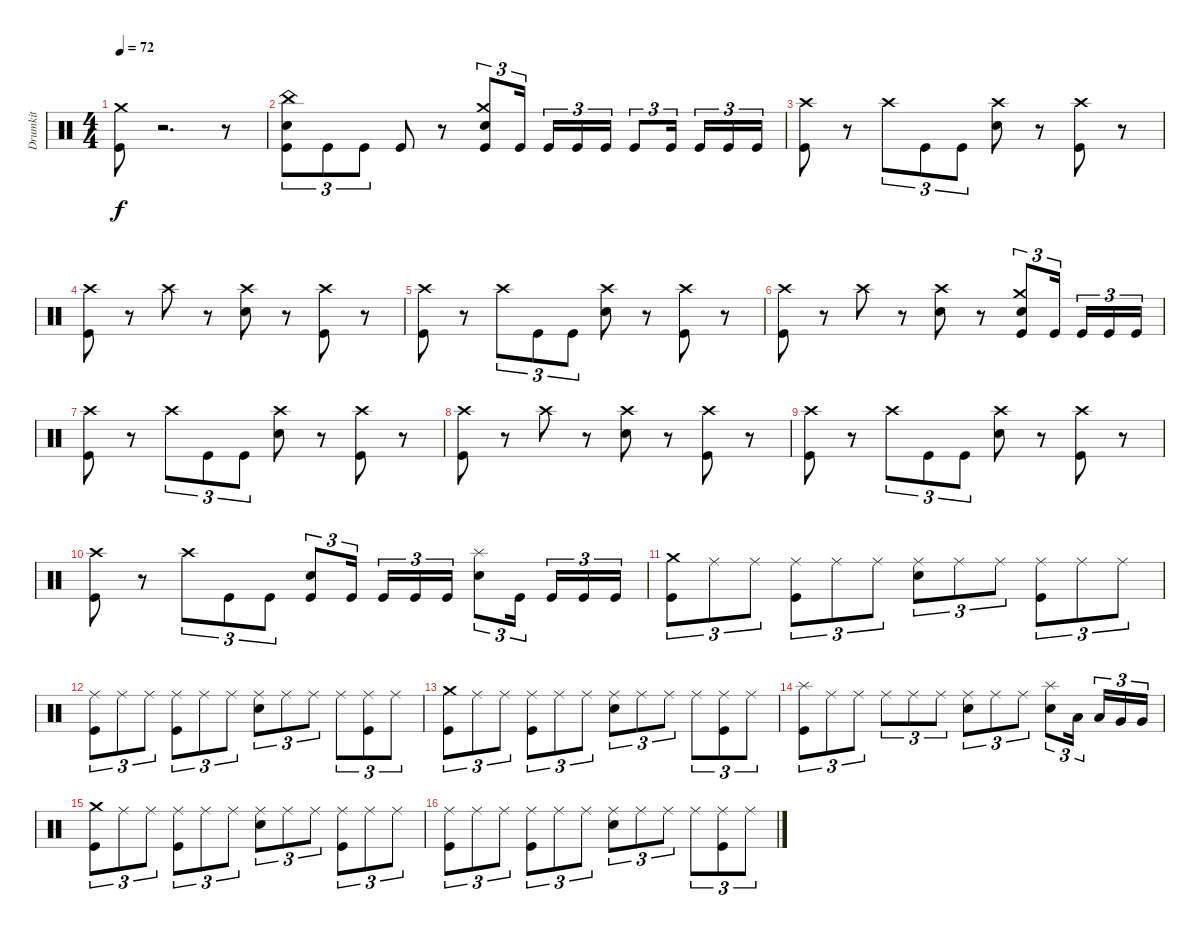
\track ("Drumkit" "Drumkit") {instrument percussion}
\staff {score}
\articulation defaults
\ts (4 4)
\tempo 72
\clef neutral
\ks c
("Kick (hit)" "Crash medium (hit)").8{dy f} r.2{d} r.8 |
("Kick (hit)" "Snare (hit) 2" "China (hit)").8{tu (3 2)} "Kick (hit)".8{tu (3 2)} "Kick (hit)".8{tu (3 2)} "Kick (hit)".8 r.8 ("Kick (hit)" "Snare (hit) 2" "Crash medium (hit)").8{tu (3 2)} "Kick (hit)".16{tu (3 2) beam splitsecondary} "Kick (hit)".16{tu (3 2)} "Kick (hit)".16{tu (3 2)} "Kick (hit)".16{tu (3 2)} "Kick (hit)".8{tu (3 2)} "Kick (hit)".16{tu (3 2) beam splitsecondary} "Kick (hit)".16{tu (3 2)} "Kick (hit)".16{tu (3 2)} "Kick (hit)".16{tu (3 2)} |
("Kick (hit)" "Crash high (hit)").8 r.8 "Crash high (hit)".8{tu (3 2)} "Kick (hit)".8{tu (3 2)} "Kick (hit)".8{tu (3 2)} ("Snare (hit) 2" "Crash high (hit)").8 r.8 ("Kick (hit)" "Crash high (hit)").8 r.8 |
("Kick (hit)" "Crash high (hit)").8 r.8 "Crash high (hit)".8 r.8 ("Snare (hit) 2" "Crash high (hit)").8 r.8 ("Kick (hit)" "Crash high (hit)").8 r.8 |
("Kick (hit)" "Crash high (hit)").8 r.8 "Crash high (hit)".8{tu (3 2)} "Kick (hit)".8{tu (3 2)} "Kick (hit)".8{tu (3 2)} ("Snare (hit) 2" "Crash high (hit)").8 r.8 ("Kick (hit)" "Crash high (hit)").8 r.8 |
("Kick (hit)" "Crash high (hit)").8 r.8 "Crash high (hit)".8 r.8 ("Snare (hit) 2" "Crash high (hit)").8 r.8 ("Kick (hit)" "Snare (hit) 2" "Crash medium (hit)").8{tu (3 2)} "Kick (hit)".16{tu (3 2) beam splitsecondary} "Kick (hit)".16{tu (3 2)} "Kick (hit)".16{tu (3 2)} "Kick (hit)".16{tu (3 2)} |
("Kick (hit)" "Crash high (hit)").8 r.8 "Crash high (hit)".8{tu (3 2)} "Kick (hit)".8{tu (3 2)} "Kick (hit)".8{tu (3 2)} ("Snare (hit) 2" "Crash high (hit)").8 r.8 ("Kick (hit)" "Crash high (hit)").8 r.8 |
("Kick (hit)" "Crash high (hit)").8 r.8 "Crash high (hit)".8 r.8 ("Snare (hit) 2" "Crash high (hit)").8 r.8 ("Kick (hit)" "Crash high (hit)").8 r.8 |
("Kick (hit)" "Crash high (hit)").8 r.8 "Crash high (hit)".8{tu (3 2)} "Kick (hit)".8{tu (3 2)} "Kick (hit)".8{tu (3 2)} ("Snare (hit) 2" "Crash high (hit)").8 r.8 ("Kick (hit)" "Crash high (hit)").8 r.8 |
("Kick (hit)" "Crash high (hit)").8 r.8 "Crash high (hit)".8{tu (3 2)} "Kick (hit)".8{tu (3 2)} "Kick (hit)".8{tu (3 2)} ("Kick (hit)" "Snare (hit) 2").8{tu (3 2)} "Kick (hit)".16{tu (3 2) beam splitsecondary} "Kick (hit)".16{tu (3 2)} "Kick (hit)".16{tu (3 2)} "Kick (hit)".16{tu (3 2)} ("Snare (hit) 2" "Splash (hit)").8{tu (3 2)} "Kick (hit)".16{tu (3 2) beam splitsecondary} "Kick (hit)".16{tu (3 2)} "Kick (hit)".16{tu (3 2)} "Kick (hit)".16{tu (3 2)} |
("Kick (hit)" "Crash medium (hit)").8{tu (3 2)} "Ride (middle)".8{tu (3 2)} "Ride (middle)".8{tu (3 2)} ("Kick (hit)" "Ride (middle)").8{tu (3 2)} "Ride (middle)".8{tu (3 2)} "Ride (middle)".8{tu (3 2)} ("Snare (hit) 2" "Ride (middle)").8{tu (3 2)} "Ride (middle)".8{tu (3 2)} "Ride (middle)".8{tu (3 2)} ("Kick (hit)" "Ride (middle)").8{tu (3 2)} "Ride (middle)".8{tu (3 2)} "Ride (middle)".8{tu (3 2)} |
("Kick (hit)" "Ride (middle)").8{tu (3 2)} "Ride (middle)".8{tu (3 2)} "Ride (middle)".8{tu (3 2)} ("Kick (hit)" "Ride (middle)").8{tu (3 2)} "Ride (middle)".8{tu (3 2)} "Ride (middle)".8{tu (3 2)} ("Snare (hit) 2" "Ride (middle)").8{tu (3 2)} "Ride (middle)".8{tu (3 2)} "Ride (middle)".8{tu (3 2)} "Ride (middle)".8{tu (3 2)} ("Kick (hit)" "Ride (middle)").8{tu (3 2)} "Ride (middle)".8{tu (3 2)} |
("Kick (hit)" "Crash medium (hit)").8{tu (3 2)} "Ride (middle)".8{tu (3 2)} "Ride (middle)".8{tu (3 2)} ("Kick (hit)" "Ride (middle)").8{tu (3 2)} "Ride (middle)".8{tu (3 2)} "Ride (middle)".8{tu (3 2)} ("Snare (hit) 2" "Ride (middle)").8{tu (3 2)} "Ride (middle)".8{tu (3 2)} "Ride (middle)".8{tu (3 2)} "Ride (middle)".8{tu (3 2)} ("Kick (hit)" "Ride (middle)").8{tu (3 2)} "Ride (middle)".8{tu (3 2)} |
("Kick (hit)" "Splash (hit)").8{tu (3 2)} "Ride (middle)".8{tu (3 2)} "Ride (middle)".8{tu (3 2)} "Ride (middle)".8{tu (3 2)} "Ride (middle)".8{tu (3 2)} "Ride (middle)".8{tu (3 2)} ("Snare (hit) 2" "Ride (middle)").8{tu (3 2)} "Ride (middle)".8{tu (3 2)} "Ride (middle)".8{tu (3 2)} ("Snare (hit) 2" "Splash (hit)").8{tu (3 2)} "Low Tom (hit)".16{tu (3 2) beam splitsecondary} "Low Tom (hit)".16{tu (3 2)} "Very Low Tom (hit)".16{tu (3 2)} "Very Low Tom (hit)".16{tu (3 2)} |
("Kick (hit)" "Crash medium (hit)").8{tu (3 2)} "Ride (middle)".8{tu (3 2)} "Ride (middle)".8{tu (3 2)} ("Kick (hit)" "Ride (middle)").8{tu (3 2)} "Ride (middle)".8{tu (3 2)} "Ride (middle)".8{tu (3 2)} ("Snare (hit) 2" "Ride (middle)").8{tu (3 2)} "Ride (middle)".8{tu (3 2)} "Ride (middle)".8{tu (3 2)} ("Kick (hit)" "Ride (middle)").8{tu (3 2)} "Ride (middle)".8{tu (3 2)} "Ride (middle)".8{tu (3 2)} |
("Kick (hit)" "Ride (middle)").8{tu (3 2)} "Ride (middle)".8{tu (3 2)} "Ride (middle)".8{tu (3 2)} ("Kick (hit)" "Ride (middle)").8{tu (3 2)} "Ride (middle)".8{tu (3 2)} "Ride (middle)".8{tu (3 2)} ("Snare (hit) 2" "Ride (middle)").8{tu (3 2)} "Ride (middle)".8{tu (3 2)} "Ride (middle)".8{tu (3 2)} "Ride (middle)".8{tu (3 2)} ("Kick (hit)" "Ride (middle)").8{tu (3 2)} "Ride (middle)".8{tu (3 2)}
